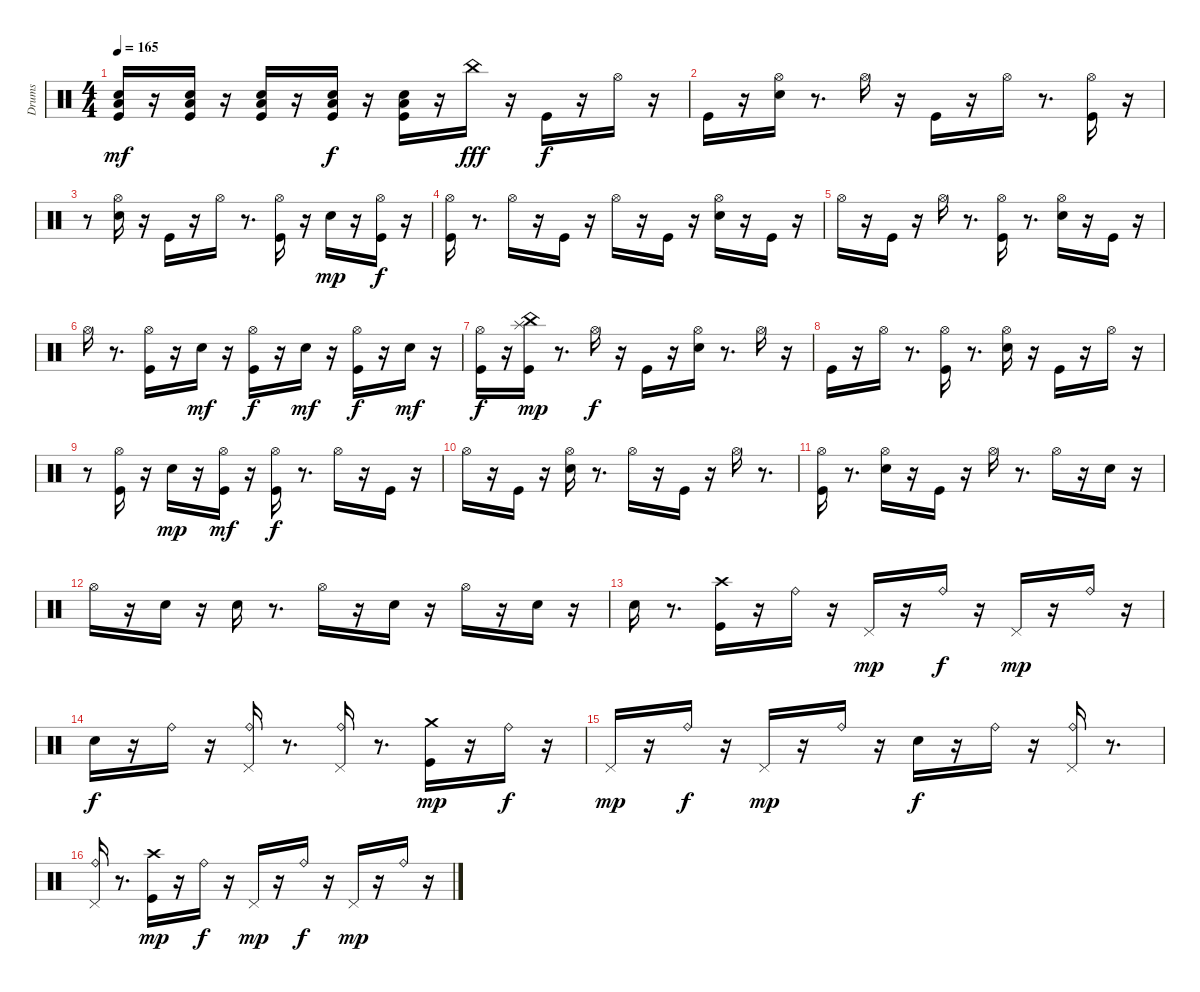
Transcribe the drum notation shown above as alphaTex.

\track ("Drums" "Drums") {instrument percussion}
\staff {score}
\articulation defaults
\ts (4 4)
\tempo 165
\clef neutral
\ks c
("Electric Snare (hit)" "Low Floor Tom (hit)" "Kick (hit)").16{dy mf} r.16 ("Electric Snare (hit)" "Low Floor Tom (hit)" "Kick (hit)").16 r.16 ("Electric Snare (hit)" "Low Floor Tom (hit)" "Kick (hit)").16 r.16 ("Electric Snare (hit)" "Low Floor Tom (hit)" "Kick (hit)").16{dy f} r.16 ("Electric Snare (hit)" "Low Floor Tom (hit)" "Kick (hit)").16 r.16 "China (hit)".16{dy fff} r.16 "Kick (hit)".16{dy f} r.16 "Hi-Hat (open)".16 r.16 |
"Kick (hit)".16 r.16 ("Hi-Hat (open)" "Electric Snare (hit)").16 r.8{d} "Hi-Hat (open)".16 r.16 "Kick (hit)".16 r.16 "Hi-Hat (open)".16 r.8{d} ("Kick (hit)" "Hi-Hat (open)").16 r.16 |
r.8 ("Electric Snare (hit)" "Hi-Hat (open)").16 r.16 "Kick (hit)".16 r.16 "Hi-Hat (open)".16 r.8{d} ("Kick (hit)" "Hi-Hat (open)").16 r.16 "Electric Snare (hit)".16{dy mp} r.16 ("Hi-Hat (open)" "Kick (hit)").16{dy f} r.16 |
("Hi-Hat (open)" "Kick (hit)").16 r.8{d} "Hi-Hat (open)".16 r.16 "Kick (hit)".16 r.16 "Hi-Hat (open)".16 r.16 "Kick (hit)".16 r.16 ("Electric Snare (hit)" "Hi-Hat (open)").16 r.16 "Kick (hit)".16 r.16 |
"Hi-Hat (open)".16 r.16 "Kick (hit)".16 r.16 "Hi-Hat (open)".16 r.8{d} ("Hi-Hat (open)" "Kick (hit)").16 r.8{d} ("Hi-Hat (open)" "Electric Snare (hit)").16 r.16 "Kick (hit)".16 r.16 |
"Hi-Hat (open)".16 r.8{d} ("Kick (hit)" "Hi-Hat (open)").16 r.16 "Electric Snare (hit)".16{dy mf} r.16 ("Kick (hit)" "Hi-Hat (open)").16{dy f} r.16 "Electric Snare (hit)".16{dy mf} r.16 ("Kick (hit)" "Hi-Hat (open)").16{dy f} r.16 "Electric Snare (hit)".16{dy mf} r.16 |
("Hi-Hat (open)" "Kick (hit)").16{dy f} r.16 ("Splash (hit)" "China (hit)" "Kick (hit)").16{dy mp} r.8{d} "Hi-Hat (open)".16{dy f} r.16 "Kick (hit)".16 r.16 ("Electric Snare (hit)" "Hi-Hat (open)").16 r.8{d} "Hi-Hat (open)".16 r.16 |
"Kick (hit)".16 r.16 "Hi-Hat (open)".16 r.8{d} ("Kick (hit)" "Hi-Hat (open)").16 r.8{d} ("Electric Snare (hit)" "Hi-Hat (open)").16 r.16 "Kick (hit)".16 r.16 "Hi-Hat (open)".16 r.16 |
r.8 ("Kick (hit)" "Hi-Hat (open)").16 r.16 "Electric Snare (hit)".16{dy mp} r.16 ("Kick (hit)" "Hi-Hat (open)").16{dy mf} r.16 ("Kick (hit)" "Hi-Hat (open)").16{dy f} r.8{d} "Hi-Hat (open)".16 r.16 "Kick (hit)".16 r.16 |
"Hi-Hat (open)".16 r.16 "Kick (hit)".16 r.16 ("Hi-Hat (open)" "Electric Snare (hit)").16 r.8{d} "Hi-Hat (open)".16 r.16 "Kick (hit)".16 r.16 "Hi-Hat (open)".16 r.8{d} |
("Kick (hit)" "Hi-Hat (open)").16 r.8{d} ("Electric Snare (hit)" "Hi-Hat (open)").16 r.16 "Kick (hit)".16 r.16 "Hi-Hat (open)".16 r.8{d} "Hi-Hat (open)".16 r.16 "Electric Snare (hit)".16 r.16 |
"Hi-Hat (open)".16 r.16 "Electric Snare (hit)".16 r.16 "Electric Snare (hit)".16 r.8{d} "Hi-Hat (open)".16 r.16 "Electric Snare (hit)".16 r.16 "Hi-Hat (open)".16 r.16 "Electric Snare (hit)".16 r.16 |
"Electric Snare (hit)".16 r.8{d} ("Kick (hit)" "Crash high (hit)").16 r.16 "Ride (bell)".16 r.16 "Pedal Hi-Hat (hit)".16{dy mp} r.16 "Ride (bell)".16{dy f} r.16 "Pedal Hi-Hat (hit)".16{dy mp} r.16 "Ride (bell)".16 r.16 |
"Electric Snare (hit)".16{dy f} r.16 "Ride (bell)".16 r.16 ("Pedal Hi-Hat (hit)" "Ride (bell)").16 r.8{d} ("Pedal Hi-Hat (hit)" "Ride (bell)").16 r.8{d} ("Kick (hit)" "Crash medium (hit)").16{dy mp} r.16 "Ride (bell)".16{dy f} r.16 |
"Pedal Hi-Hat (hit)".16{dy mp} r.16 "Ride (bell)".16{dy f} r.16 "Pedal Hi-Hat (hit)".16{dy mp} r.16 "Ride (bell)".16 r.16 "Electric Snare (hit)".16{dy f} r.16 "Ride (bell)".16 r.16 ("Pedal Hi-Hat (hit)" "Ride (bell)").16 r.8{d} |
("Pedal Hi-Hat (hit)" "Ride (bell)").16 r.8{d} ("Crash high (hit)" "Kick (hit)").16{dy mp} r.16 "Ride (bell)".16{dy f} r.16 "Pedal Hi-Hat (hit)".16{dy mp} r.16 "Ride (bell)".16{dy f} r.16 "Pedal Hi-Hat (hit)".16{dy mp} r.16 "Ride (bell)".16 r.16
